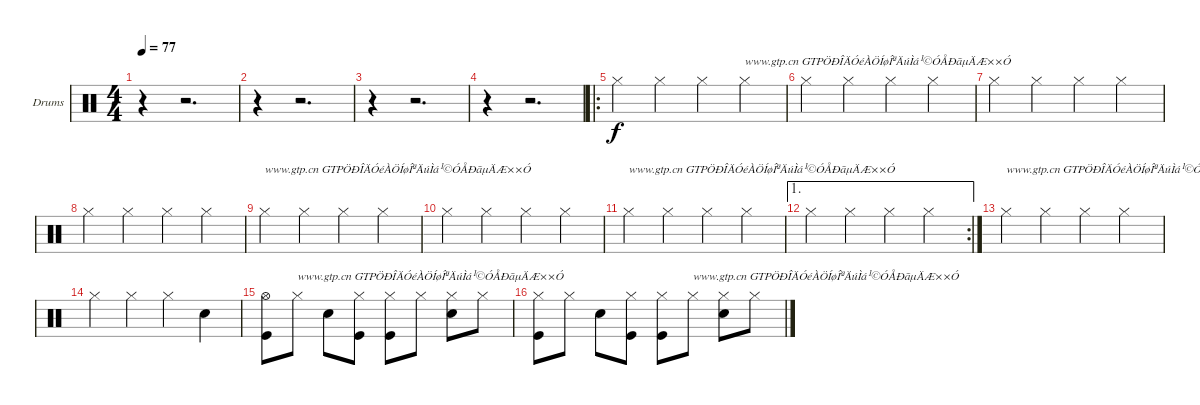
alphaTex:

\bracketExtendMode groupsimilarinstruments
\firstSystemTrackNameOrientation horizontal
\otherSystemsTrackNameOrientation horizontal
\track ("Drumkit" "Drums") {instrument percussion}
\staff {score}
\articulation defaults
\ts (4 4)
\tempo 77
\clef neutral
\ks c
r.4{dy f} r.2{d} |
r.4 r.2{d} |
r.4 r.2{d} |
r.4 r.2{d} |
\ro "Hi-Hat (closed)".4 "Hi-Hat (closed)".4 "Hi-Hat (closed)".4 "Hi-Hat (closed)".4{txt "www.gtp.cn GTPÖÐÎÄÓéÀÖÍøÎªÄúÌá¹©ÓÅÐãµÄÆ××Ó"}
|
"Hi-Hat (closed)".4 "Hi-Hat (closed)".4 "Hi-Hat (closed)".4 "Hi-Hat (closed)".4 |
"Hi-Hat (closed)".4 "Hi-Hat (closed)".4 "Hi-Hat (closed)".4 "Hi-Hat (closed)".4 |
"Hi-Hat (closed)".4 "Hi-Hat (closed)".4 "Hi-Hat (closed)".4 "Hi-Hat (closed)".4 |
"Hi-Hat (closed)".4{txt "www.gtp.cn GTPÖÐÎÄÓéÀÖÍøÎªÄúÌá¹©ÓÅÐãµÄÆ××Ó"} "Hi-Hat (closed)".4 "Hi-Hat (closed)".4 "Hi-Hat (closed)".4 |
"Hi-Hat (closed)".4 "Hi-Hat (closed)".4 "Hi-Hat (closed)".4 "Hi-Hat (closed)".4 |
"Hi-Hat (closed)".4{txt "www.gtp.cn GTPÖÐÎÄÓéÀÖÍøÎªÄúÌá¹©ÓÅÐãµÄÆ××Ó"} "Hi-Hat (closed)".4 "Hi-Hat (closed)".4 "Hi-Hat (closed)".4 |
\ae 1
\rc 1 "Hi-Hat (closed)".4 "Hi-Hat (closed)".4 "Hi-Hat (closed)".4 "Hi-Hat (closed)".4
|
"Hi-Hat (closed)".4{txt "www.gtp.cn GTPÖÐÎÄÓéÀÖÍøÎªÄúÌá¹©ÓÅÐãµÄÆ××Ó"} "Hi-Hat (closed)".4 "Hi-Hat (closed)".4 "Hi-Hat (closed)".4 |
"Hi-Hat (closed)".4 "Hi-Hat (closed)".4 "Hi-Hat (closed)".4 "Snare (hit) 2".4 |
("Kick (hit)" "Hi-Hat (open)").8 "Hi-Hat (closed)".8{txt "www.gtp.cn GTPÖÐÎÄÓéÀÖÍøÎªÄúÌá¹©ÓÅÐãµÄÆ××Ó"} "Snare (hit) 2".8 ("Hi-Hat (closed)" "Kick (hit)").8 ("Hi-Hat (closed)" "Kick (hit)").8 "Hi-Hat (closed)".8 ("Hi-Hat (closed)" "Snare (hit) 2").8 "Hi-Hat (closed)".8 |
("Kick (hit)" "Hi-Hat (closed)").8 "Hi-Hat (closed)".8 "Snare (hit) 2".8 ("Hi-Hat (closed)" "Kick (hit)").8 ("Hi-Hat (closed)" "Kick (hit)").8 "Hi-Hat (closed)".8{txt "www.gtp.cn GTPÖÐÎÄÓéÀÖÍøÎªÄúÌá¹©ÓÅÐãµÄÆ××Ó"} ("Hi-Hat (closed)" "Snare (hit) 2").8 "Hi-Hat (closed)".8
